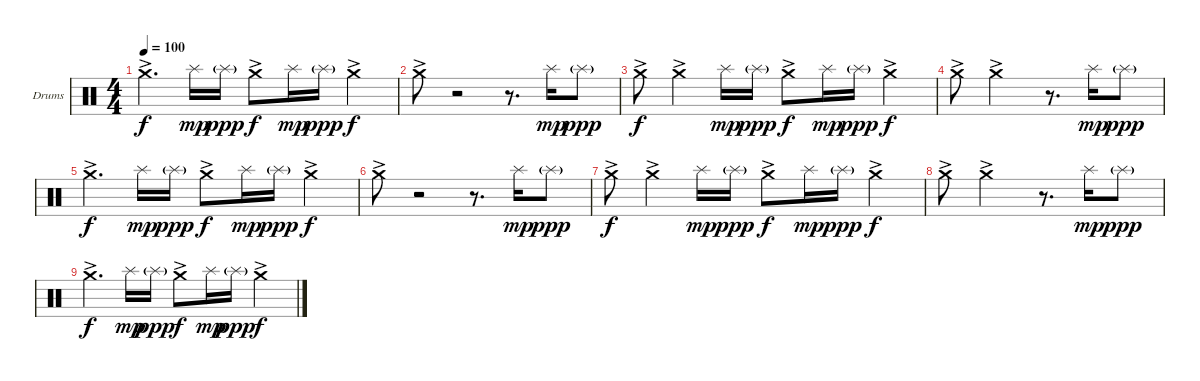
\bracketExtendMode groupsimilarinstruments
\firstSystemTrackNameOrientation horizontal
\otherSystemsTrackNameOrientation horizontal
\track ("Cymbals left" "Drums") {instrument percussion}
\staff {score}
\articulation defaults
\ts (4 4)
\tempo 100
\clef neutral
\ks c "Crash medium (hit)"{ac}.4{d dy f} "Splash (hit)".16{dy mp} "Splash (hit)"{g}.16{dy ppp} "Crash medium (hit)"{ac}.8{dy f} "Splash (hit)".16{dy mp} "Splash (hit)"{g}.16{dy ppp} "Crash medium (hit)"{ac}.4{dy f}
|
"Crash medium (hit)"{ac}.8 r.2 r.8{d} "Splash (hit)".16{dy mp} "Splash (hit)"{g}.8{dy ppp} |
"Crash medium (hit)"{ac}.8{dy f} "Crash medium (hit)"{ac}.4 "Splash (hit)".16{dy mp} "Splash (hit)"{g}.16{dy ppp} "Crash medium (hit)"{ac}.8{dy f} "Splash (hit)".16{dy mp} "Splash (hit)"{g}.16{dy ppp} "Crash medium (hit)"{ac}.4{dy f} |
"Crash medium (hit)"{ac}.8 "Crash medium (hit)"{ac}.2 r.8{d} "Splash (hit)".16{dy mp} "Splash (hit)"{g}.8{dy ppp} |
"Crash medium (hit)"{ac}.4{d dy f} "Splash (hit)".16{dy mp} "Splash (hit)"{g}.16{dy ppp} "Crash medium (hit)"{ac}.8{dy f} "Splash (hit)".16{dy mp} "Splash (hit)"{g}.16{dy ppp} "Crash medium (hit)"{ac}.4{dy f} |
"Crash medium (hit)"{ac}.8 r.2 r.8{d} "Splash (hit)".16{dy mp} "Splash (hit)"{g}.8{dy ppp} |
"Crash medium (hit)"{ac}.8{dy f} "Crash medium (hit)"{ac}.4 "Splash (hit)".16{dy mp} "Splash (hit)"{g}.16{dy ppp} "Crash medium (hit)"{ac}.8{dy f} "Splash (hit)".16{dy mp} "Splash (hit)"{g}.16{dy ppp} "Crash medium (hit)"{ac}.4{dy f} |
"Crash medium (hit)"{ac}.8 "Crash medium (hit)"{ac}.2 r.8{d} "Splash (hit)".16{dy mp} "Splash (hit)"{g}.8{dy ppp} |
"Crash medium (hit)"{ac}.4{d dy f} "Splash (hit)".16{dy mp} "Splash (hit)"{g}.16{dy ppp} "Crash medium (hit)"{ac}.8{dy f} "Splash (hit)".16{dy mp} "Splash (hit)"{g}.16{dy ppp} "Crash medium (hit)"{ac}.4{dy f}
